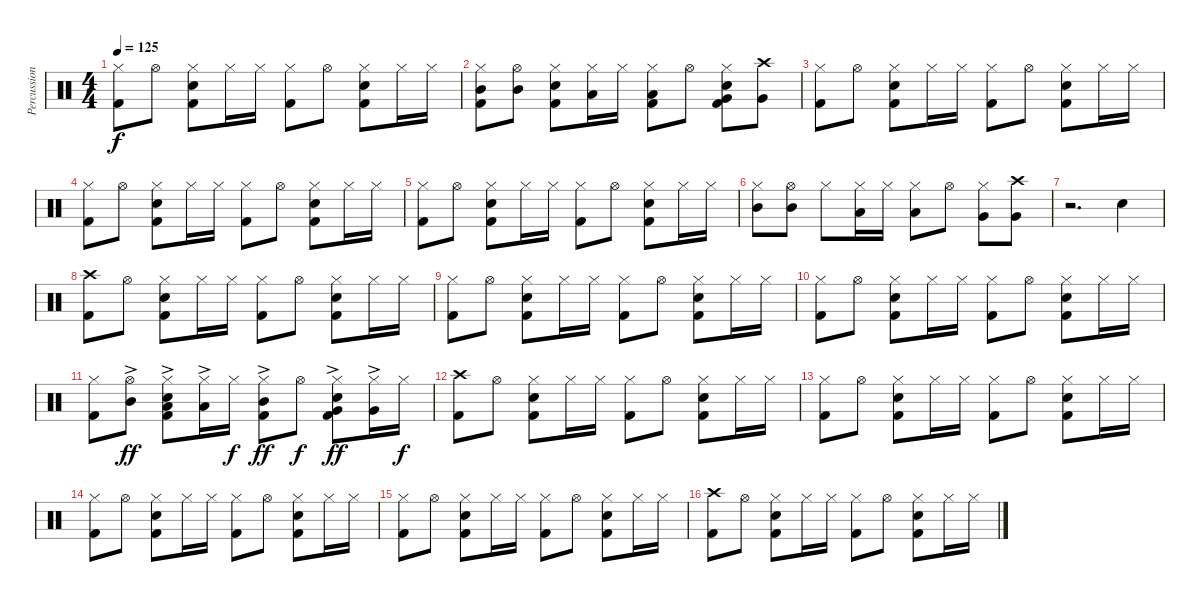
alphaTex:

\track ("Percussion" "Percussion") {instrument percussion}
\staff {score}
\articulation defaults
\ts (4 4)
\tempo 125
\clef neutral
\ks c
("Hi-Hat (closed)" "Kick (hit) 2").8{dy f} "Hi-Hat (open)".8 ("Hi-Hat (closed)" "Electric Snare (hit)" "Kick (hit) 2").8 "Hi-Hat (closed)".16 "Hi-Hat (closed)".16 ("Hi-Hat (closed)" "Kick (hit) 2").8 "Hi-Hat (open)".8 ("Hi-Hat (closed)" "Electric Snare (hit)" "Kick (hit) 2").8 "Hi-Hat (closed)".16 "Hi-Hat (closed)".16 |
("Hi-Hat (closed)" "Mid Tom (hit)" "Kick (hit) 2").8 ("Hi-Hat (open)" "Mid Tom (hit)").8 ("Hi-Hat (closed)" "Electric Snare (hit)" "Kick (hit) 2").8 ("Hi-Hat (closed)" "Low Tom (hit)").16 "Hi-Hat (closed)".16 ("Hi-Hat (closed)" "Low Tom (hit)" "Kick (hit) 2").8 "Hi-Hat (open)".8 ("Hi-Hat (closed)" "Very Low Tom (hit)" "Electric Snare (hit)" "Kick (hit) 2").8 ("Crash high (hit)" "Very Low Tom (hit)").8 |
("Hi-Hat (closed)" "Kick (hit) 2").8 "Hi-Hat (open)".8 ("Hi-Hat (closed)" "Electric Snare (hit)" "Kick (hit) 2").8 "Hi-Hat (closed)".16 "Hi-Hat (closed)".16 ("Hi-Hat (closed)" "Kick (hit) 2").8 "Hi-Hat (open)".8 ("Hi-Hat (closed)" "Electric Snare (hit)" "Kick (hit) 2").8 "Hi-Hat (closed)".16 "Hi-Hat (closed)".16 |
("Hi-Hat (closed)" "Kick (hit) 2").8 "Hi-Hat (open)".8 ("Hi-Hat (closed)" "Electric Snare (hit)" "Kick (hit) 2").8 "Hi-Hat (closed)".16 "Hi-Hat (closed)".16 ("Hi-Hat (closed)" "Kick (hit) 2").8 "Hi-Hat (open)".8 ("Hi-Hat (closed)" "Electric Snare (hit)" "Kick (hit) 2").8 "Hi-Hat (closed)".16 "Hi-Hat (closed)".16 |
("Hi-Hat (closed)" "Kick (hit) 2").8 "Hi-Hat (open)".8 ("Hi-Hat (closed)" "Electric Snare (hit)" "Kick (hit) 2").8 "Hi-Hat (closed)".16 "Hi-Hat (closed)".16 ("Hi-Hat (closed)" "Kick (hit) 2").8 "Hi-Hat (open)".8 ("Hi-Hat (closed)" "Electric Snare (hit)" "Kick (hit) 2").8 "Hi-Hat (closed)".16 "Hi-Hat (closed)".16 |
("Hi-Hat (closed)" "Mid Tom (hit)").8 ("Hi-Hat (open)" "Mid Tom (hit)").8 "Hi-Hat (closed)".8 ("Hi-Hat (closed)" "Low Tom (hit)").16 "Hi-Hat (closed)".16 ("Hi-Hat (closed)" "Low Tom (hit)").8 "Hi-Hat (open)".8 ("Hi-Hat (closed)" "Very Low Tom (hit)").8 ("Crash high (hit)" "Very Low Tom (hit)").8 |
r.2{d} "Electric Snare (hit)".4 |
("Crash high (hit)" "Kick (hit) 2").8 "Hi-Hat (open)".8 ("Hi-Hat (closed)" "Electric Snare (hit)" "Kick (hit) 2").8 "Hi-Hat (closed)".16 "Hi-Hat (closed)".16 ("Hi-Hat (closed)" "Kick (hit) 2").8 "Hi-Hat (open)".8 ("Hi-Hat (closed)" "Electric Snare (hit)" "Kick (hit) 2").8 "Hi-Hat (closed)".16 "Hi-Hat (closed)".16 |
("Hi-Hat (closed)" "Kick (hit) 2").8 "Hi-Hat (open)".8 ("Hi-Hat (closed)" "Electric Snare (hit)" "Kick (hit) 2").8 "Hi-Hat (closed)".16 "Hi-Hat (closed)".16 ("Hi-Hat (closed)" "Kick (hit) 2").8 "Hi-Hat (open)".8 ("Hi-Hat (closed)" "Electric Snare (hit)" "Kick (hit) 2").8 "Hi-Hat (closed)".16 "Hi-Hat (closed)".16 |
("Hi-Hat (closed)" "Kick (hit) 2").8 "Hi-Hat (open)".8 ("Hi-Hat (closed)" "Electric Snare (hit)" "Kick (hit) 2").8 "Hi-Hat (closed)".16 "Hi-Hat (closed)".16 ("Hi-Hat (closed)" "Kick (hit) 2").8 "Hi-Hat (open)".8 ("Hi-Hat (closed)" "Electric Snare (hit)" "Kick (hit) 2").8 "Hi-Hat (closed)".16 "Hi-Hat (closed)".16 |
("Hi-Hat (closed)" "Kick (hit) 2").8 ("Hi-Hat (open)" "Mid Tom (hit)"{ac}).8{dy ff} ("Hi-Hat (closed)" "Low Tom (hit)"{ac} "Electric Snare (hit)" "Kick (hit) 2").8 ("Hi-Hat (closed)" "Low Tom (hit)"{ac}).16 "Hi-Hat (closed)".16{dy f} ("Hi-Hat (closed)" "Mid Tom (hit)"{ac} "Kick (hit) 2").8{dy ff} "Hi-Hat (open)".8{dy f} ("Hi-Hat (closed)" "Very Low Tom (hit)"{ac} "Electric Snare (hit)" "Kick (hit) 2").8{dy ff} ("Hi-Hat (closed)" "Very Low Tom (hit)"{ac}).16 "Hi-Hat (closed)".16{dy f} |
("Crash high (hit)" "Kick (hit) 2").8 "Hi-Hat (open)".8 ("Hi-Hat (closed)" "Electric Snare (hit)" "Kick (hit) 2").8 "Hi-Hat (closed)".16 "Hi-Hat (closed)".16 ("Hi-Hat (closed)" "Kick (hit) 2").8 "Hi-Hat (open)".8 ("Hi-Hat (closed)" "Electric Snare (hit)" "Kick (hit) 2").8 "Hi-Hat (closed)".16 "Hi-Hat (closed)".16 |
("Hi-Hat (closed)" "Kick (hit) 2").8 "Hi-Hat (open)".8 ("Hi-Hat (closed)" "Electric Snare (hit)" "Kick (hit) 2").8 "Hi-Hat (closed)".16 "Hi-Hat (closed)".16 ("Hi-Hat (closed)" "Kick (hit) 2").8 "Hi-Hat (open)".8 ("Hi-Hat (closed)" "Electric Snare (hit)" "Kick (hit) 2").8 "Hi-Hat (closed)".16 "Hi-Hat (closed)".16 |
("Hi-Hat (closed)" "Kick (hit) 2").8 "Hi-Hat (open)".8 ("Hi-Hat (closed)" "Electric Snare (hit)" "Kick (hit) 2").8 "Hi-Hat (closed)".16 "Hi-Hat (closed)".16 ("Hi-Hat (closed)" "Kick (hit) 2").8 "Hi-Hat (open)".8 ("Hi-Hat (closed)" "Electric Snare (hit)" "Kick (hit) 2").8 "Hi-Hat (closed)".16 "Hi-Hat (closed)".16 |
("Hi-Hat (closed)" "Kick (hit) 2").8 "Hi-Hat (open)".8 ("Hi-Hat (closed)" "Electric Snare (hit)" "Kick (hit) 2").8 "Hi-Hat (closed)".16 "Hi-Hat (closed)".16 ("Hi-Hat (closed)" "Kick (hit) 2").8 "Hi-Hat (open)".8 ("Hi-Hat (closed)" "Electric Snare (hit)" "Kick (hit) 2").8 "Hi-Hat (closed)".16 "Hi-Hat (closed)".16 |
("Crash high (hit)" "Kick (hit) 2").8 "Hi-Hat (open)".8 ("Hi-Hat (closed)" "Electric Snare (hit)" "Kick (hit) 2").8 "Hi-Hat (closed)".16 "Hi-Hat (closed)".16 ("Hi-Hat (closed)" "Kick (hit) 2").8 "Hi-Hat (open)".8 ("Hi-Hat (closed)" "Electric Snare (hit)" "Kick (hit) 2").8 "Hi-Hat (closed)".16 "Hi-Hat (closed)".16
